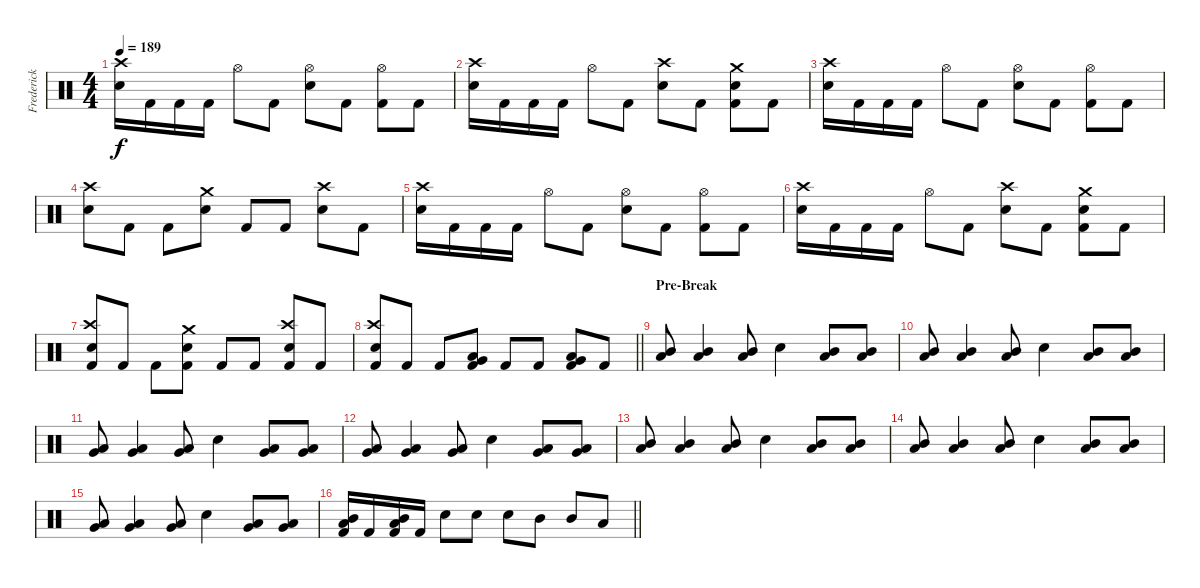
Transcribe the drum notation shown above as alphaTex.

\track ("Frederick Ehmke" "Frederick ") {instrument percussion}
\staff {score}
\articulation defaults
\ts (4 4)
\tempo 189
\clef neutral
\ks c
("Electric Snare (hit)" "Crash high (hit)").16{dy f} "Kick (hit) 2".16 "Kick (hit) 2".16 "Kick (hit) 2".16 "Hi-Hat (open)".8 "Kick (hit) 2".8 ("Electric Snare (hit)" "Hi-Hat (open)").8 "Kick (hit) 2".8 ("Kick (hit) 2" "Hi-Hat (open)").8 "Kick (hit) 2".8 |
("Electric Snare (hit)" "Crash high (hit)").16 "Kick (hit) 2".16 "Kick (hit) 2".16 "Kick (hit) 2".16 "Hi-Hat (open)".8 "Kick (hit) 2".8 ("Electric Snare (hit)" "Crash high (hit)").8 "Kick (hit) 2".8 ("Electric Snare (hit)" "Kick (hit) 2" "Crash medium (hit)").8 "Kick (hit) 2".8 |
("Electric Snare (hit)" "Crash high (hit)").16 "Kick (hit) 2".16 "Kick (hit) 2".16 "Kick (hit) 2".16 "Hi-Hat (open)".8 "Kick (hit) 2".8 ("Electric Snare (hit)" "Hi-Hat (open)").8 "Kick (hit) 2".8 ("Kick (hit) 2" "Hi-Hat (open)").8 "Kick (hit) 2".8 |
("Electric Snare (hit)" "Crash high (hit)").8 "Kick (hit) 2".8 "Kick (hit) 2".8 ("Electric Snare (hit)" "Crash medium (hit)").8 "Kick (hit) 2".8 "Kick (hit) 2".8 ("Electric Snare (hit)" "Crash high (hit)").8 "Kick (hit) 2".8 |
("Electric Snare (hit)" "Crash high (hit)").16 "Kick (hit) 2".16 "Kick (hit) 2".16 "Kick (hit) 2".16 "Hi-Hat (open)".8 "Kick (hit) 2".8 ("Electric Snare (hit)" "Hi-Hat (open)").8 "Kick (hit) 2".8 ("Kick (hit) 2" "Hi-Hat (open)").8 "Kick (hit) 2".8 |
("Electric Snare (hit)" "Crash high (hit)").16 "Kick (hit) 2".16 "Kick (hit) 2".16 "Kick (hit) 2".16 "Hi-Hat (open)".8 "Kick (hit) 2".8 ("Electric Snare (hit)" "Crash high (hit)").8 "Kick (hit) 2".8 ("Electric Snare (hit)" "Kick (hit) 2" "Crash medium (hit)").8 "Kick (hit) 2".8 |
("Electric Snare (hit)" "Kick (hit) 2" "Crash high (hit)").8 "Kick (hit) 2".8 "Kick (hit) 2".8 ("Electric Snare (hit)" "Kick (hit) 2" "Crash medium (hit)").8 "Kick (hit) 2".8 "Kick (hit) 2".8 ("Electric Snare (hit)" "Kick (hit) 2" "Crash high (hit)").8 "Kick (hit) 2".8 |
\barLineRight lightlight
("Electric Snare (hit)" "Kick (hit) 2" "Crash high (hit)").8 "Kick (hit) 2".8 "Kick (hit) 2".8 ("Kick (hit) 2" "Low Tom (hit)" "Very Low Tom (hit)").8 "Kick (hit) 2".8 "Kick (hit) 2".8 ("Kick (hit) 2" "Low Tom (hit)" "Very Low Tom (hit)").8 "Kick (hit) 2".8 |
\section ("" "Pre-Break")
("Mid Tom (hit)" "Low Tom (hit)").8 ("Mid Tom (hit)" "Low Tom (hit)").4 ("Mid Tom (hit)" "Low Tom (hit)").8 "Electric Snare (hit)".4 ("Mid Tom (hit)" "Low Tom (hit)").8 ("Mid Tom (hit)" "Low Tom (hit)").8 |
("Mid Tom (hit)" "Low Tom (hit)").8 ("Mid Tom (hit)" "Low Tom (hit)").4 ("Mid Tom (hit)" "Low Tom (hit)").8 "Electric Snare (hit)".4 ("Mid Tom (hit)" "Low Tom (hit)").8 ("Mid Tom (hit)" "Low Tom (hit)").8 |
("Very Low Tom (hit)" "Low Tom (hit)").8 ("Very Low Tom (hit)" "Low Tom (hit)").4 ("Very Low Tom (hit)" "Low Tom (hit)").8 "Electric Snare (hit)".4 ("Very Low Tom (hit)" "Low Tom (hit)").8 ("Very Low Tom (hit)" "Low Tom (hit)").8 |
("Very Low Tom (hit)" "Low Floor Tom (hit)").8 ("Very Low Tom (hit)" "Low Floor Tom (hit)").4 ("Very Low Tom (hit)" "Low Floor Tom (hit)").8 "Electric Snare (hit)".4 ("Low Floor Tom (hit)" "Very Low Tom (hit)").8 ("Low Floor Tom (hit)" "Very Low Tom (hit)").8 |
("Mid Tom (hit)" "Low Tom (hit)").8 ("Mid Tom (hit)" "Low Tom (hit)").4 ("Mid Tom (hit)" "Low Tom (hit)").8 "Electric Snare (hit)".4 ("Mid Tom (hit)" "Low Tom (hit)").8 ("Mid Tom (hit)" "Low Tom (hit)").8 |
("Mid Tom (hit)" "Low Tom (hit)").8 ("Mid Tom (hit)" "Low Tom (hit)").4 ("Mid Tom (hit)" "Low Tom (hit)").8 "Electric Snare (hit)".4 ("Mid Tom (hit)" "Low Tom (hit)").8 ("Mid Tom (hit)" "Low Tom (hit)").8 |
("Very Low Tom (hit)" "Low Tom (hit)").8 ("Very Low Tom (hit)" "Low Tom (hit)").4 ("Very Low Tom (hit)" "Low Tom (hit)").8 "Electric Snare (hit)".4 ("Very Low Tom (hit)" "Low Tom (hit)").8 ("Very Low Tom (hit)" "Low Tom (hit)").8 |
\barLineRight lightlight
("Kick (hit) 2" "Mid Tom (hit)" "Low Tom (hit)").16 "Kick (hit) 2".16 ("Kick (hit) 2" "Mid Tom (hit)" "Low Tom (hit)").16 "Kick (hit) 2".16 "Electric Snare (hit)".8 "Electric Snare (hit)".8 "Electric Snare (hit)".8 "Mid Tom (hit)".8 "Mid Tom (hit)".8 "Low Tom (hit)".8
